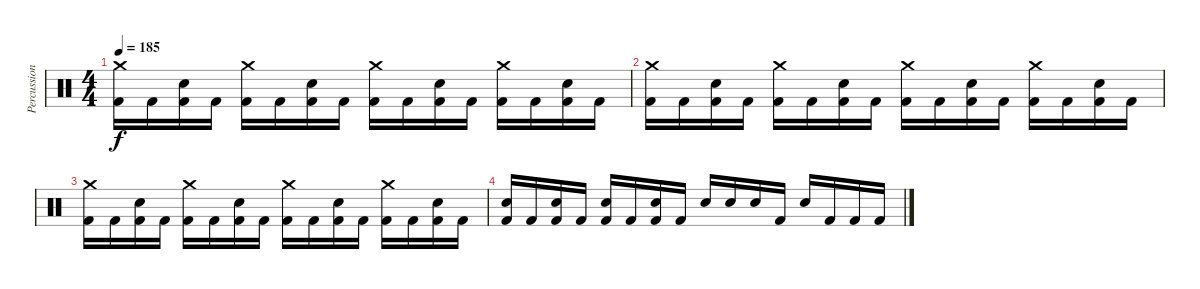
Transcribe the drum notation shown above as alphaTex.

\track ("Percussion" "Percussion") {instrument percussion}
\staff {score}
\articulation defaults
\ts (4 4)
\tempo 185
\clef neutral
\ks c
("Crash medium (hit)" "Kick (hit) 2").16{dy f} "Kick (hit) 2".16 ("Snare (hit) 2" "Kick (hit) 2").16 "Kick (hit) 2".16 ("Crash medium (hit)" "Kick (hit) 2").16 "Kick (hit) 2".16 ("Snare (hit) 2" "Kick (hit) 2").16 "Kick (hit) 2".16 ("Crash medium (hit)" "Kick (hit) 2").16 "Kick (hit) 2".16 ("Snare (hit) 2" "Kick (hit) 2").16 "Kick (hit) 2".16 ("Crash medium (hit)" "Kick (hit) 2").16 "Kick (hit) 2".16 ("Snare (hit) 2" "Kick (hit) 2").16 "Kick (hit) 2".16 |
("Crash medium (hit)" "Kick (hit) 2").16 "Kick (hit) 2".16 ("Snare (hit) 2" "Kick (hit) 2").16 "Kick (hit) 2".16 ("Crash medium (hit)" "Kick (hit) 2").16 "Kick (hit) 2".16 ("Snare (hit) 2" "Kick (hit) 2").16 "Kick (hit) 2".16 ("Crash medium (hit)" "Kick (hit) 2").16 "Kick (hit) 2".16 ("Snare (hit) 2" "Kick (hit) 2").16 "Kick (hit) 2".16 ("Crash medium (hit)" "Kick (hit) 2").16 "Kick (hit) 2".16 ("Snare (hit) 2" "Kick (hit) 2").16 "Kick (hit) 2".16 |
("Crash medium (hit)" "Kick (hit) 2").16 "Kick (hit) 2".16 ("Snare (hit) 2" "Kick (hit) 2").16 "Kick (hit) 2".16 ("Crash medium (hit)" "Kick (hit) 2").16 "Kick (hit) 2".16 ("Snare (hit) 2" "Kick (hit) 2").16 "Kick (hit) 2".16 ("Crash medium (hit)" "Kick (hit) 2").16 "Kick (hit) 2".16 ("Snare (hit) 2" "Kick (hit) 2").16 "Kick (hit) 2".16 ("Crash medium (hit)" "Kick (hit) 2").16 "Kick (hit) 2".16 ("Snare (hit) 2" "Kick (hit) 2").16 "Kick (hit) 2".16 |
("Snare (hit) 2" "Kick (hit) 2").16 "Kick (hit) 2".16 ("Snare (hit) 2" "Kick (hit) 2").16 "Kick (hit) 2".16 ("Snare (hit) 2" "Kick (hit) 2").16 "Kick (hit) 2".16 ("Snare (hit) 2" "Kick (hit) 2").16 "Kick (hit) 2".16 "Snare (hit) 2".16 "Snare (hit) 2".16 "Snare (hit) 2".16 "Kick (hit) 2".16 "Snare (hit) 2".16 "Kick (hit) 2".16 "Kick (hit) 2".16 "Kick (hit) 2".16
